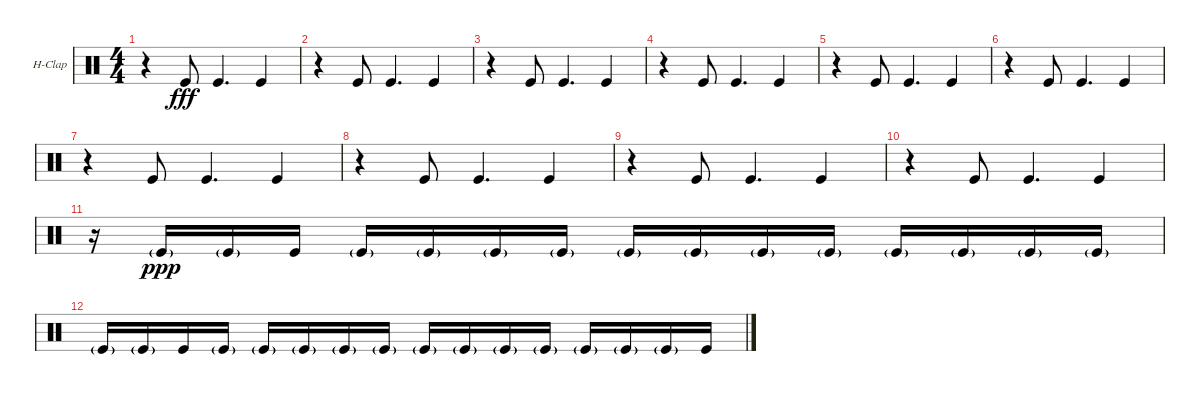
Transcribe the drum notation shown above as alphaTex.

\bracketExtendMode groupsimilarinstruments
\firstSystemTrackNameOrientation horizontal
\otherSystemsTrackNameOrientation horizontal
\track ("Hand Clap" "H-Clap") {instrument percussion}
\staff {score}
\articulation defaults
\ts (4 4)
\tempo (98 hide)
\clef neutral
\ks c
r.4{dy fff} "Kick (hit)".8 "Kick (hit)".4{d} "Kick (hit)".4 |
r.4 "Kick (hit)".8 "Kick (hit)".4{d} "Kick (hit)".4 |
r.4 "Kick (hit)".8 "Kick (hit)".4{d} "Kick (hit)".4 |
\tempo (100 hide)
r.4 "Kick (hit)".8 "Kick (hit)".4{d} "Kick (hit)".4 |
r.4 "Kick (hit)".8 "Kick (hit)".4{d} "Kick (hit)".4 |
r.4 "Kick (hit)".8 "Kick (hit)".4{d} "Kick (hit)".4 |
r.4 "Kick (hit)".8 "Kick (hit)".4{d} "Kick (hit)".4 |
r.4 "Kick (hit)".8 "Kick (hit)".4{d} "Kick (hit)".4 |
r.4 "Kick (hit)".8 "Kick (hit)".4{d} "Kick (hit)".4 |
r.4 "Kick (hit)".8 "Kick (hit)".4{d} "Kick (hit)".4 |
\tempo (80 0.5 hide)
\tempo (100 0.625 hide)
r.16 "Kick (hit)"{g}.16{dy ppp} "Kick (hit)"{g}.16 "Kick (hit)".16 "Kick (hit)"{g}.16 "Kick (hit)"{g}.16 "Kick (hit)"{g}.16 "Kick (hit)"{g}.16 "Kick (hit)"{g}.16 "Kick (hit)"{g}.16 "Kick (hit)"{g}.16 "Kick (hit)"{g}.16 "Kick (hit)"{g}.16 "Kick (hit)"{g}.16 "Kick (hit)"{g}.16 "Kick (hit)"{g}.16 |
\tempo (96 hide)
"Kick (hit)"{g}.16 "Kick (hit)"{g}.16 "Kick (hit)".16 "Kick (hit)"{g}.16 "Kick (hit)"{g}.16 "Kick (hit)"{g}.16 "Kick (hit)"{g}.16 "Kick (hit)"{g}.16 "Kick (hit)"{g}.16 "Kick (hit)"{g}.16 "Kick (hit)"{g}.16 "Kick (hit)"{g}.16 "Kick (hit)"{g}.16 "Kick (hit)"{g}.16 "Kick (hit)"{g}.16 "Kick (hit)".16
